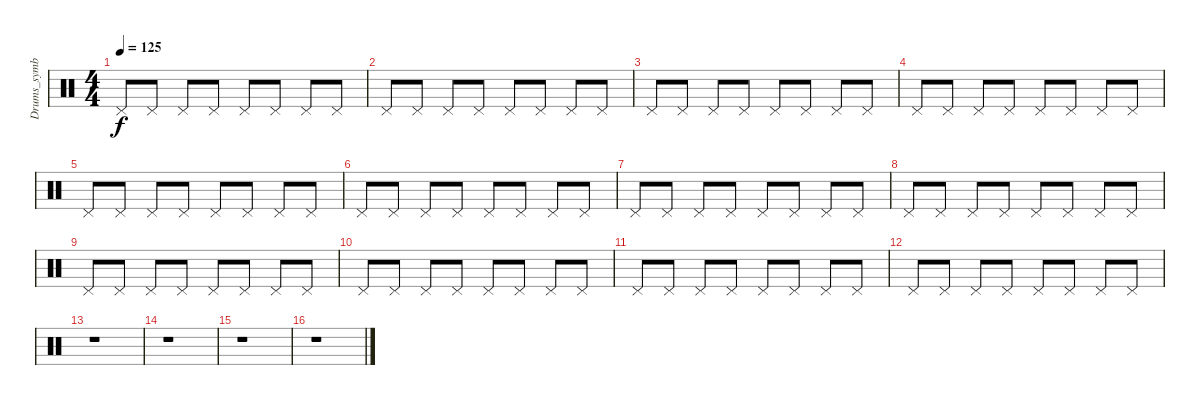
\track ("Drums_symbal" "Drums_symb") {instrument percussion}
\staff {score}
\articulation defaults
\ts (4 4)
\tempo 125
\clef neutral
\ks c "Pedal Hi-Hat (hit)".8{dy f} "Pedal Hi-Hat (hit)".8 "Pedal Hi-Hat (hit)".8 "Pedal Hi-Hat (hit)".8 "Pedal Hi-Hat (hit)".8 "Pedal Hi-Hat (hit)".8 "Pedal Hi-Hat (hit)".8 "Pedal Hi-Hat (hit)".8
|
"Pedal Hi-Hat (hit)".8 "Pedal Hi-Hat (hit)".8 "Pedal Hi-Hat (hit)".8 "Pedal Hi-Hat (hit)".8 "Pedal Hi-Hat (hit)".8 "Pedal Hi-Hat (hit)".8 "Pedal Hi-Hat (hit)".8 "Pedal Hi-Hat (hit)".8 |
"Pedal Hi-Hat (hit)".8 "Pedal Hi-Hat (hit)".8 "Pedal Hi-Hat (hit)".8 "Pedal Hi-Hat (hit)".8 "Pedal Hi-Hat (hit)".8 "Pedal Hi-Hat (hit)".8 "Pedal Hi-Hat (hit)".8 "Pedal Hi-Hat (hit)".8 |
"Pedal Hi-Hat (hit)".8 "Pedal Hi-Hat (hit)".8 "Pedal Hi-Hat (hit)".8 "Pedal Hi-Hat (hit)".8 "Pedal Hi-Hat (hit)".8 "Pedal Hi-Hat (hit)".8 "Pedal Hi-Hat (hit)".8 "Pedal Hi-Hat (hit)".8 |
"Pedal Hi-Hat (hit)".8 "Pedal Hi-Hat (hit)".8 "Pedal Hi-Hat (hit)".8 "Pedal Hi-Hat (hit)".8 "Pedal Hi-Hat (hit)".8 "Pedal Hi-Hat (hit)".8 "Pedal Hi-Hat (hit)".8 "Pedal Hi-Hat (hit)".8 |
"Pedal Hi-Hat (hit)".8 "Pedal Hi-Hat (hit)".8 "Pedal Hi-Hat (hit)".8 "Pedal Hi-Hat (hit)".8 "Pedal Hi-Hat (hit)".8 "Pedal Hi-Hat (hit)".8 "Pedal Hi-Hat (hit)".8 "Pedal Hi-Hat (hit)".8 |
"Pedal Hi-Hat (hit)".8 "Pedal Hi-Hat (hit)".8 "Pedal Hi-Hat (hit)".8 "Pedal Hi-Hat (hit)".8 "Pedal Hi-Hat (hit)".8 "Pedal Hi-Hat (hit)".8 "Pedal Hi-Hat (hit)".8 "Pedal Hi-Hat (hit)".8 |
"Pedal Hi-Hat (hit)".8 "Pedal Hi-Hat (hit)".8 "Pedal Hi-Hat (hit)".8 "Pedal Hi-Hat (hit)".8 "Pedal Hi-Hat (hit)".8 "Pedal Hi-Hat (hit)".8 "Pedal Hi-Hat (hit)".8 "Pedal Hi-Hat (hit)".8 |
"Pedal Hi-Hat (hit)".8 "Pedal Hi-Hat (hit)".8 "Pedal Hi-Hat (hit)".8 "Pedal Hi-Hat (hit)".8 "Pedal Hi-Hat (hit)".8 "Pedal Hi-Hat (hit)".8 "Pedal Hi-Hat (hit)".8 "Pedal Hi-Hat (hit)".8 |
"Pedal Hi-Hat (hit)".8 "Pedal Hi-Hat (hit)".8 "Pedal Hi-Hat (hit)".8 "Pedal Hi-Hat (hit)".8 "Pedal Hi-Hat (hit)".8 "Pedal Hi-Hat (hit)".8 "Pedal Hi-Hat (hit)".8 "Pedal Hi-Hat (hit)".8 |
"Pedal Hi-Hat (hit)".8 "Pedal Hi-Hat (hit)".8 "Pedal Hi-Hat (hit)".8 "Pedal Hi-Hat (hit)".8 "Pedal Hi-Hat (hit)".8 "Pedal Hi-Hat (hit)".8 "Pedal Hi-Hat (hit)".8 "Pedal Hi-Hat (hit)".8 |
"Pedal Hi-Hat (hit)".8 "Pedal Hi-Hat (hit)".8 "Pedal Hi-Hat (hit)".8 "Pedal Hi-Hat (hit)".8 "Pedal Hi-Hat (hit)".8 "Pedal Hi-Hat (hit)".8 "Pedal Hi-Hat (hit)".8 "Pedal Hi-Hat (hit)".8 |
r.1 |
r.1 |
r.1 |
r.1
